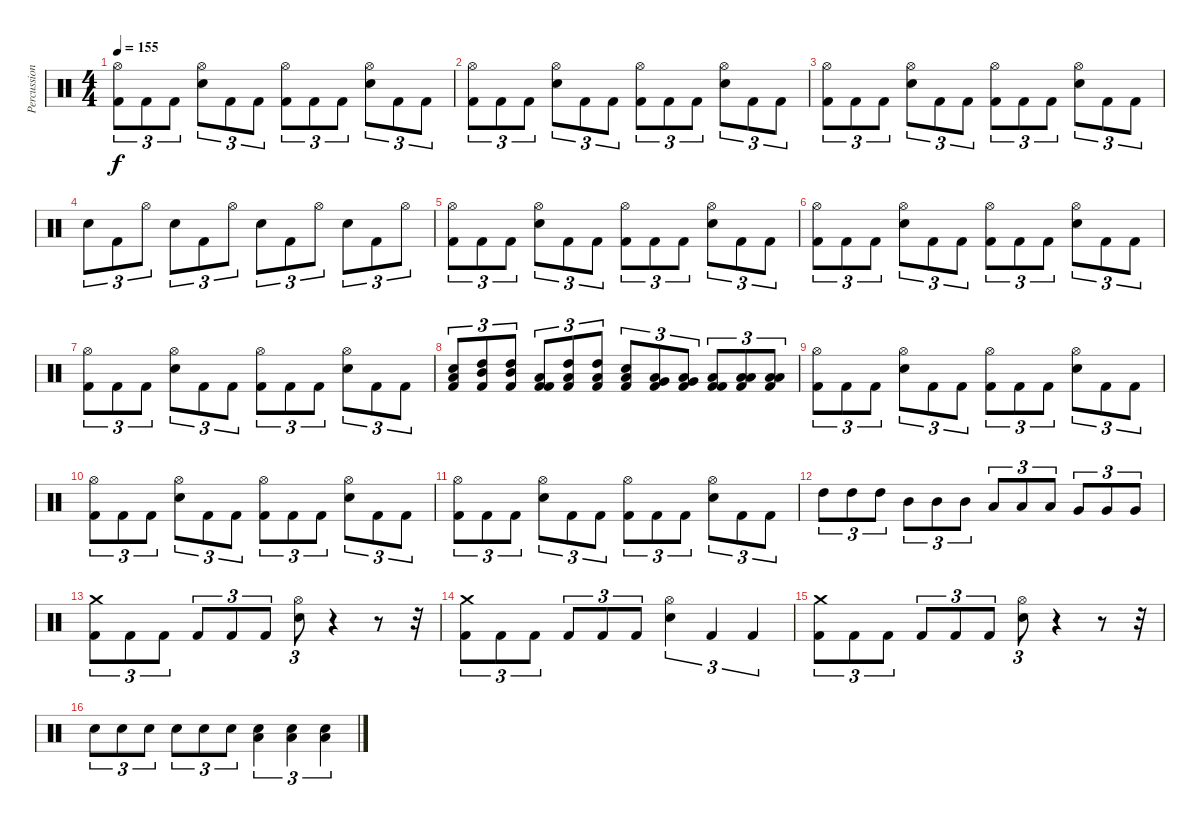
\track ("Percussion" "Percussion") {instrument percussion}
\staff {score}
\articulation defaults
\ts (4 4)
\tempo 155
\clef neutral
\ks c
("Hi-Hat (open)" "Kick (hit) 2").8{tu (3 2) dy f} "Kick (hit) 2".8{tu (3 2)} "Kick (hit) 2".8{tu (3 2)} ("Hi-Hat (open)" "Snare (hit) 2").8{tu (3 2)} "Kick (hit) 2".8{tu (3 2)} "Kick (hit) 2".8{tu (3 2)} ("Hi-Hat (open)" "Kick (hit) 2").8{tu (3 2)} "Kick (hit) 2".8{tu (3 2)} "Kick (hit) 2".8{tu (3 2)} ("Hi-Hat (open)" "Snare (hit) 2").8{tu (3 2)} "Kick (hit) 2".8{tu (3 2)} "Kick (hit) 2".8{tu (3 2)} |
("Hi-Hat (open)" "Kick (hit) 2").8{tu (3 2)} "Kick (hit) 2".8{tu (3 2)} "Kick (hit) 2".8{tu (3 2)} ("Hi-Hat (open)" "Snare (hit) 2").8{tu (3 2)} "Kick (hit) 2".8{tu (3 2)} "Kick (hit) 2".8{tu (3 2)} ("Hi-Hat (open)" "Kick (hit) 2").8{tu (3 2)} "Kick (hit) 2".8{tu (3 2)} "Kick (hit) 2".8{tu (3 2)} ("Hi-Hat (open)" "Snare (hit) 2").8{tu (3 2)} "Kick (hit) 2".8{tu (3 2)} "Kick (hit) 2".8{tu (3 2)} |
("Hi-Hat (open)" "Kick (hit) 2").8{tu (3 2)} "Kick (hit) 2".8{tu (3 2)} "Kick (hit) 2".8{tu (3 2)} ("Hi-Hat (open)" "Snare (hit) 2").8{tu (3 2)} "Kick (hit) 2".8{tu (3 2)} "Kick (hit) 2".8{tu (3 2)} ("Hi-Hat (open)" "Kick (hit) 2").8{tu (3 2)} "Kick (hit) 2".8{tu (3 2)} "Kick (hit) 2".8{tu (3 2)} ("Hi-Hat (open)" "Snare (hit) 2").8{tu (3 2)} "Kick (hit) 2".8{tu (3 2)} "Kick (hit) 2".8{tu (3 2)} |
"Snare (hit) 2".8{tu (3 2)} "Kick (hit) 2".8{tu (3 2)} "Hi-Hat (open)".8{tu (3 2)} "Snare (hit) 2".8{tu (3 2)} "Kick (hit) 2".8{tu (3 2)} "Hi-Hat (open)".8{tu (3 2)} "Snare (hit) 2".8{tu (3 2)} "Kick (hit) 2".8{tu (3 2)} "Hi-Hat (open)".8{tu (3 2)} "Snare (hit) 2".8{tu (3 2)} "Kick (hit) 2".8{tu (3 2)} "Hi-Hat (open)".8{tu (3 2)} |
("Hi-Hat (open)" "Kick (hit) 2").8{tu (3 2)} "Kick (hit) 2".8{tu (3 2)} "Kick (hit) 2".8{tu (3 2)} ("Hi-Hat (open)" "Snare (hit) 2").8{tu (3 2)} "Kick (hit) 2".8{tu (3 2)} "Kick (hit) 2".8{tu (3 2)} ("Hi-Hat (open)" "Kick (hit) 2").8{tu (3 2)} "Kick (hit) 2".8{tu (3 2)} "Kick (hit) 2".8{tu (3 2)} ("Hi-Hat (open)" "Snare (hit) 2").8{tu (3 2)} "Kick (hit) 2".8{tu (3 2)} "Kick (hit) 2".8{tu (3 2)} |
("Hi-Hat (open)" "Kick (hit) 2").8{tu (3 2)} "Kick (hit) 2".8{tu (3 2)} "Kick (hit) 2".8{tu (3 2)} ("Hi-Hat (open)" "Snare (hit) 2").8{tu (3 2)} "Kick (hit) 2".8{tu (3 2)} "Kick (hit) 2".8{tu (3 2)} ("Hi-Hat (open)" "Kick (hit) 2").8{tu (3 2)} "Kick (hit) 2".8{tu (3 2)} "Kick (hit) 2".8{tu (3 2)} ("Hi-Hat (open)" "Snare (hit) 2").8{tu (3 2)} "Kick (hit) 2".8{tu (3 2)} "Kick (hit) 2".8{tu (3 2)} |
("Hi-Hat (open)" "Kick (hit) 2").8{tu (3 2)} "Kick (hit) 2".8{tu (3 2)} "Kick (hit) 2".8{tu (3 2)} ("Hi-Hat (open)" "Snare (hit) 2").8{tu (3 2)} "Kick (hit) 2".8{tu (3 2)} "Kick (hit) 2".8{tu (3 2)} ("Hi-Hat (open)" "Kick (hit) 2").8{tu (3 2)} "Kick (hit) 2".8{tu (3 2)} "Kick (hit) 2".8{tu (3 2)} ("Hi-Hat (open)" "Snare (hit) 2").8{tu (3 2)} "Kick (hit) 2".8{tu (3 2)} "Kick (hit) 2".8{tu (3 2)} |
("Low Tom (hit)" "Snare (hit) 2" "Kick (hit) 2").8{tu (3 2)} ("Mid Tom (hit)" "High Tom (hit)" "Kick (hit) 2").8{tu (3 2)} ("Mid Tom (hit)" "High Tom (hit)" "Kick (hit) 2").8{tu (3 2)} ("Low Tom (hit)" "Kick (hit) 2" "Kick (hit) 2").8{tu (3 2)} ("Low Tom (hit)" "High Tom (hit)" "Kick (hit) 2").8{tu (3 2)} ("Low Tom (hit)" "High Tom (hit)" "Kick (hit) 2").8{tu (3 2)} ("Low Tom (hit)" "Snare (hit) 2" "Kick (hit) 2").8{tu (3 2)} ("Low Tom (hit)" "Very Low Tom (hit)" "Kick (hit) 2").8{tu (3 2)} ("Low Tom (hit)" "Very Low Tom (hit)" "Kick (hit) 2").8{tu (3 2)} ("Low Tom (hit)" "Kick (hit) 2" "Kick (hit) 2").8{tu (3 2)} ("Low Tom (hit)" "Low Floor Tom (hit)" "Kick (hit) 2").8{tu (3 2)} ("Low Tom (hit)" "Low Floor Tom (hit)" "Kick (hit) 2").8{tu (3 2)} |
("Hi-Hat (open)" "Kick (hit) 2").8{tu (3 2)} "Kick (hit) 2".8{tu (3 2)} "Kick (hit) 2".8{tu (3 2)} ("Hi-Hat (open)" "Snare (hit) 2").8{tu (3 2)} "Kick (hit) 2".8{tu (3 2)} "Kick (hit) 2".8{tu (3 2)} ("Hi-Hat (open)" "Kick (hit) 2").8{tu (3 2)} "Kick (hit) 2".8{tu (3 2)} "Kick (hit) 2".8{tu (3 2)} ("Hi-Hat (open)" "Snare (hit) 2").8{tu (3 2)} "Kick (hit) 2".8{tu (3 2)} "Kick (hit) 2".8{tu (3 2)} |
("Hi-Hat (open)" "Kick (hit) 2").8{tu (3 2)} "Kick (hit) 2".8{tu (3 2)} "Kick (hit) 2".8{tu (3 2)} ("Hi-Hat (open)" "Snare (hit) 2").8{tu (3 2)} "Kick (hit) 2".8{tu (3 2)} "Kick (hit) 2".8{tu (3 2)} ("Hi-Hat (open)" "Kick (hit) 2").8{tu (3 2)} "Kick (hit) 2".8{tu (3 2)} "Kick (hit) 2".8{tu (3 2)} ("Hi-Hat (open)" "Snare (hit) 2").8{tu (3 2)} "Kick (hit) 2".8{tu (3 2)} "Kick (hit) 2".8{tu (3 2)} |
("Hi-Hat (open)" "Kick (hit) 2").8{tu (3 2)} "Kick (hit) 2".8{tu (3 2)} "Kick (hit) 2".8{tu (3 2)} ("Hi-Hat (open)" "Snare (hit) 2").8{tu (3 2)} "Kick (hit) 2".8{tu (3 2)} "Kick (hit) 2".8{tu (3 2)} ("Hi-Hat (open)" "Kick (hit) 2").8{tu (3 2)} "Kick (hit) 2".8{tu (3 2)} "Kick (hit) 2".8{tu (3 2)} ("Hi-Hat (open)" "Snare (hit) 2").8{tu (3 2)} "Kick (hit) 2".8{tu (3 2)} "Kick (hit) 2".8{tu (3 2)} |
"High Tom (hit)".8{tu (3 2)} "High Tom (hit)".8{tu (3 2)} "High Tom (hit)".8{tu (3 2)} "Mid Tom (hit)".8{tu (3 2)} "Mid Tom (hit)".8{tu (3 2)} "Mid Tom (hit)".8{tu (3 2)} "Low Tom (hit)".8{tu (3 2)} "Low Tom (hit)".8{tu (3 2)} "Low Tom (hit)".8{tu (3 2)} "Very Low Tom (hit)".8{tu (3 2)} "Very Low Tom (hit)".8{tu (3 2)} "Very Low Tom (hit)".8{tu (3 2)} |
("Crash medium (hit)" "Kick (hit) 2").8{tu (3 2)} "Kick (hit) 2".8{tu (3 2)} "Kick (hit) 2".8{tu (3 2)} "Kick (hit) 2".8{tu (3 2)} "Kick (hit) 2".8{tu (3 2)} "Kick (hit) 2".8{tu (3 2)} ("Hi-Hat (open)" "Snare (hit) 2").8{tu (3 2)} r.4 r.8 r.32 |
("Crash medium (hit)" "Kick (hit) 2").8{tu (3 2)} "Kick (hit) 2".8{tu (3 2)} "Kick (hit) 2".8{tu (3 2)} "Kick (hit) 2".8{tu (3 2)} "Kick (hit) 2".8{tu (3 2)} "Kick (hit) 2".8{tu (3 2)} ("Hi-Hat (open)" "Snare (hit) 2").4{tu (3 2)} "Kick (hit) 2".4{tu (3 2)} "Kick (hit) 2".4{tu (3 2)} |
("Crash medium (hit)" "Kick (hit) 2").8{tu (3 2)} "Kick (hit) 2".8{tu (3 2)} "Kick (hit) 2".8{tu (3 2)} "Kick (hit) 2".8{tu (3 2)} "Kick (hit) 2".8{tu (3 2)} "Kick (hit) 2".8{tu (3 2)} ("Hi-Hat (open)" "Snare (hit) 2").8{tu (3 2)} r.4 r.8 r.32 |
"Snare (hit) 2".8{tu (3 2)} "Snare (hit) 2".8{tu (3 2)} "Snare (hit) 2".8{tu (3 2)} "Snare (hit) 2".8{tu (3 2)} "Snare (hit) 2".8{tu (3 2)} "Snare (hit) 2".8{tu (3 2)} ("Low Tom (hit)" "Snare (hit) 2").4{tu (3 2)} ("Low Tom (hit)" "Snare (hit) 2").4{tu (3 2)} ("Low Tom (hit)" "Snare (hit) 2").4{tu (3 2)}
